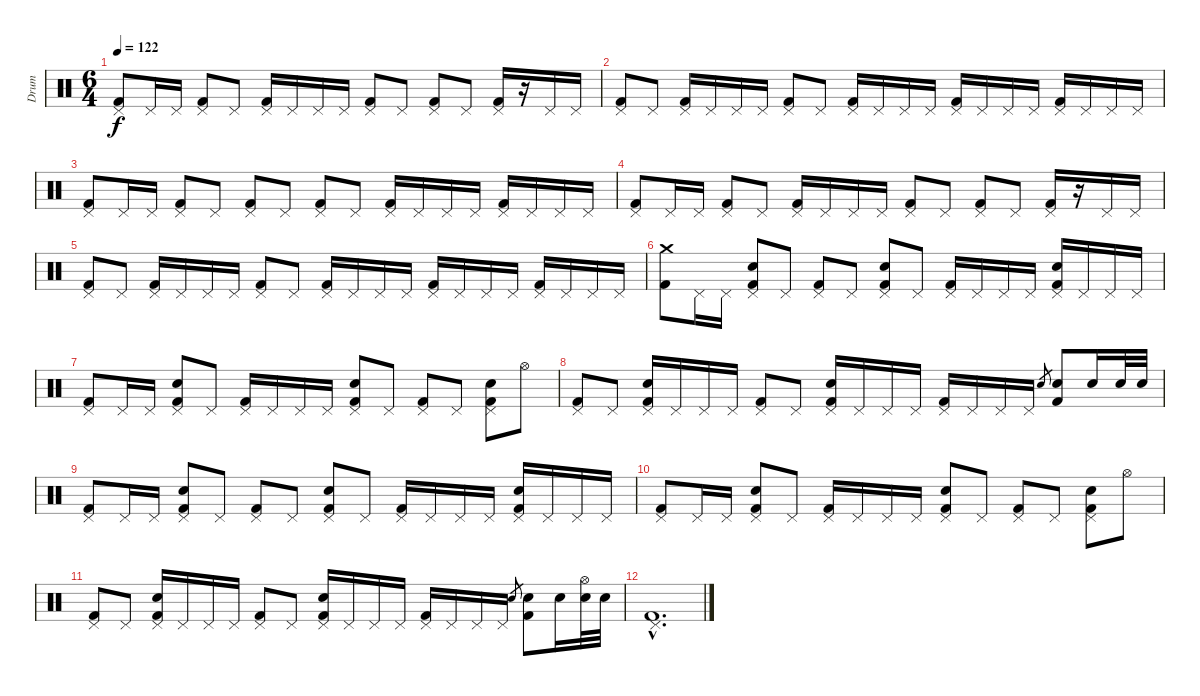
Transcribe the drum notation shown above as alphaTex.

\track ("Drum" "Drum") {instrument percussion}
\staff {score}
\articulation defaults
\ts (6 4)
\tempo 122
\clef neutral
\ks c
("Pedal Hi-Hat (hit)" "Kick (hit) 2").8{dy f} "Pedal Hi-Hat (hit)".16 "Pedal Hi-Hat (hit)".16 ("Pedal Hi-Hat (hit)" "Kick (hit) 2").8 "Pedal Hi-Hat (hit)".8 ("Pedal Hi-Hat (hit)" "Kick (hit) 2").16 "Pedal Hi-Hat (hit)".16 "Pedal Hi-Hat (hit)".16 "Pedal Hi-Hat (hit)".16 ("Pedal Hi-Hat (hit)" "Kick (hit) 2").8 "Pedal Hi-Hat (hit)".8 ("Pedal Hi-Hat (hit)" "Kick (hit) 2").8 "Pedal Hi-Hat (hit)".8 ("Pedal Hi-Hat (hit)" "Kick (hit) 2").16 r.16 "Pedal Hi-Hat (hit)".16 "Pedal Hi-Hat (hit)".16 |
("Pedal Hi-Hat (hit)" "Kick (hit) 2").8 "Pedal Hi-Hat (hit)".8 ("Pedal Hi-Hat (hit)" "Kick (hit) 2").16 "Pedal Hi-Hat (hit)".16 "Pedal Hi-Hat (hit)".16 "Pedal Hi-Hat (hit)".16 ("Pedal Hi-Hat (hit)" "Kick (hit) 2").8 "Pedal Hi-Hat (hit)".8 ("Pedal Hi-Hat (hit)" "Kick (hit) 2").16 "Pedal Hi-Hat (hit)".16 "Pedal Hi-Hat (hit)".16 "Pedal Hi-Hat (hit)".16 ("Pedal Hi-Hat (hit)" "Kick (hit) 2").16 "Pedal Hi-Hat (hit)".16 "Pedal Hi-Hat (hit)".16 "Pedal Hi-Hat (hit)".16 ("Pedal Hi-Hat (hit)" "Kick (hit) 2").16 "Pedal Hi-Hat (hit)".16 "Pedal Hi-Hat (hit)".16 "Pedal Hi-Hat (hit)".16 |
("Pedal Hi-Hat (hit)" "Kick (hit) 2").8 "Pedal Hi-Hat (hit)".16 "Pedal Hi-Hat (hit)".16 ("Pedal Hi-Hat (hit)" "Kick (hit) 2").8 "Pedal Hi-Hat (hit)".8 ("Pedal Hi-Hat (hit)" "Kick (hit) 2").8 "Pedal Hi-Hat (hit)".8 ("Pedal Hi-Hat (hit)" "Kick (hit) 2").8 "Pedal Hi-Hat (hit)".8 ("Pedal Hi-Hat (hit)" "Kick (hit) 2").16 "Pedal Hi-Hat (hit)".16 "Pedal Hi-Hat (hit)".16 "Pedal Hi-Hat (hit)".16 ("Pedal Hi-Hat (hit)" "Kick (hit) 2").16 "Pedal Hi-Hat (hit)".16 "Pedal Hi-Hat (hit)".16 "Pedal Hi-Hat (hit)".16 |
("Pedal Hi-Hat (hit)" "Kick (hit) 2").8 "Pedal Hi-Hat (hit)".16 "Pedal Hi-Hat (hit)".16 ("Pedal Hi-Hat (hit)" "Kick (hit) 2").8 "Pedal Hi-Hat (hit)".8 ("Pedal Hi-Hat (hit)" "Kick (hit) 2").16 "Pedal Hi-Hat (hit)".16 "Pedal Hi-Hat (hit)".16 "Pedal Hi-Hat (hit)".16 ("Pedal Hi-Hat (hit)" "Kick (hit) 2").8 "Pedal Hi-Hat (hit)".8 ("Pedal Hi-Hat (hit)" "Kick (hit) 2").8 "Pedal Hi-Hat (hit)".8 ("Pedal Hi-Hat (hit)" "Kick (hit) 2").16 r.16 "Pedal Hi-Hat (hit)".16 "Pedal Hi-Hat (hit)".16 |
("Pedal Hi-Hat (hit)" "Kick (hit) 2").8 "Pedal Hi-Hat (hit)".8 ("Pedal Hi-Hat (hit)" "Kick (hit) 2").16 "Pedal Hi-Hat (hit)".16 "Pedal Hi-Hat (hit)".16 "Pedal Hi-Hat (hit)".16 ("Pedal Hi-Hat (hit)" "Kick (hit) 2").8 "Pedal Hi-Hat (hit)".8 ("Pedal Hi-Hat (hit)" "Kick (hit) 2").16 "Pedal Hi-Hat (hit)".16 "Pedal Hi-Hat (hit)".16 "Pedal Hi-Hat (hit)".16 ("Pedal Hi-Hat (hit)" "Kick (hit) 2").16 "Pedal Hi-Hat (hit)".16 "Pedal Hi-Hat (hit)".16 "Pedal Hi-Hat (hit)".16 ("Pedal Hi-Hat (hit)" "Kick (hit) 2").16 "Pedal Hi-Hat (hit)".16 "Pedal Hi-Hat (hit)".16 "Pedal Hi-Hat (hit)".16 |
("Crash medium (hit)" "Kick (hit) 2").8 "Pedal Hi-Hat (hit)".16 "Pedal Hi-Hat (hit)".16 ("Pedal Hi-Hat (hit)" "Electric Snare (hit)" "Kick (hit) 2").8 "Pedal Hi-Hat (hit)".8 ("Pedal Hi-Hat (hit)" "Kick (hit) 2").8 "Pedal Hi-Hat (hit)".8 ("Pedal Hi-Hat (hit)" "Electric Snare (hit)" "Kick (hit) 2").8 "Pedal Hi-Hat (hit)".8 ("Pedal Hi-Hat (hit)" "Kick (hit) 2").16 "Pedal Hi-Hat (hit)".16 "Pedal Hi-Hat (hit)".16 "Pedal Hi-Hat (hit)".16 ("Pedal Hi-Hat (hit)" "Electric Snare (hit)" "Kick (hit) 2").16 "Pedal Hi-Hat (hit)".16 "Pedal Hi-Hat (hit)".16 "Pedal Hi-Hat (hit)".16 |
("Pedal Hi-Hat (hit)" "Kick (hit) 2").8 "Pedal Hi-Hat (hit)".16 "Pedal Hi-Hat (hit)".16 ("Pedal Hi-Hat (hit)" "Electric Snare (hit)" "Kick (hit) 2").8 "Pedal Hi-Hat (hit)".8 ("Pedal Hi-Hat (hit)" "Kick (hit) 2").16 "Pedal Hi-Hat (hit)".16 "Pedal Hi-Hat (hit)".16 "Pedal Hi-Hat (hit)".16 ("Pedal Hi-Hat (hit)" "Electric Snare (hit)" "Kick (hit) 2").8 "Pedal Hi-Hat (hit)".8 ("Pedal Hi-Hat (hit)" "Kick (hit) 2").8 "Pedal Hi-Hat (hit)".8 ("Pedal Hi-Hat (hit)" "Electric Snare (hit)" "Kick (hit) 2").8 "Hi-Hat (open)".8 |
("Pedal Hi-Hat (hit)" "Kick (hit) 2").8 "Pedal Hi-Hat (hit)".8 ("Pedal Hi-Hat (hit)" "Electric Snare (hit)" "Kick (hit) 2").16 "Pedal Hi-Hat (hit)".16 "Pedal Hi-Hat (hit)".16 "Pedal Hi-Hat (hit)".16 ("Pedal Hi-Hat (hit)" "Kick (hit) 2").8 "Pedal Hi-Hat (hit)".8 ("Pedal Hi-Hat (hit)" "Electric Snare (hit)" "Kick (hit) 2").16 "Pedal Hi-Hat (hit)".16 "Pedal Hi-Hat (hit)".16 "Pedal Hi-Hat (hit)".16 ("Pedal Hi-Hat (hit)" "Kick (hit) 2").16 "Pedal Hi-Hat (hit)".16 "Pedal Hi-Hat (hit)".16 "Pedal Hi-Hat (hit)".16 "Electric Snare (hit)".8{gr} ("Electric Snare (hit)" "Kick (hit) 2").8 "Electric Snare (hit)".16 "Electric Snare (hit)".32 "Electric Snare (hit)".32 |
("Pedal Hi-Hat (hit)" "Kick (hit) 2").8 "Pedal Hi-Hat (hit)".16 "Pedal Hi-Hat (hit)".16 ("Pedal Hi-Hat (hit)" "Electric Snare (hit)" "Kick (hit) 2").8 "Pedal Hi-Hat (hit)".8 ("Pedal Hi-Hat (hit)" "Kick (hit) 2").8 "Pedal Hi-Hat (hit)".8 ("Pedal Hi-Hat (hit)" "Electric Snare (hit)" "Kick (hit) 2").8 "Pedal Hi-Hat (hit)".8 ("Pedal Hi-Hat (hit)" "Kick (hit) 2").16 "Pedal Hi-Hat (hit)".16 "Pedal Hi-Hat (hit)".16 "Pedal Hi-Hat (hit)".16 ("Pedal Hi-Hat (hit)" "Electric Snare (hit)" "Kick (hit) 2").16 "Pedal Hi-Hat (hit)".16 "Pedal Hi-Hat (hit)".16 "Pedal Hi-Hat (hit)".16 |
("Pedal Hi-Hat (hit)" "Kick (hit) 2").8 "Pedal Hi-Hat (hit)".16 "Pedal Hi-Hat (hit)".16 ("Pedal Hi-Hat (hit)" "Electric Snare (hit)" "Kick (hit) 2").8 "Pedal Hi-Hat (hit)".8 ("Pedal Hi-Hat (hit)" "Kick (hit) 2").16 "Pedal Hi-Hat (hit)".16 "Pedal Hi-Hat (hit)".16 "Pedal Hi-Hat (hit)".16 ("Pedal Hi-Hat (hit)" "Electric Snare (hit)" "Kick (hit) 2").8 "Pedal Hi-Hat (hit)".8 ("Pedal Hi-Hat (hit)" "Kick (hit) 2").8 "Pedal Hi-Hat (hit)".8 ("Pedal Hi-Hat (hit)" "Electric Snare (hit)" "Kick (hit) 2").8 "Hi-Hat (open)".8 |
("Pedal Hi-Hat (hit)" "Kick (hit) 2").8 "Pedal Hi-Hat (hit)".8 ("Pedal Hi-Hat (hit)" "Electric Snare (hit)" "Kick (hit) 2").16 "Pedal Hi-Hat (hit)".16 "Pedal Hi-Hat (hit)".16 "Pedal Hi-Hat (hit)".16 ("Pedal Hi-Hat (hit)" "Kick (hit) 2").8 "Pedal Hi-Hat (hit)".8 ("Pedal Hi-Hat (hit)" "Electric Snare (hit)" "Kick (hit) 2").16 "Pedal Hi-Hat (hit)".16 "Pedal Hi-Hat (hit)".16 "Pedal Hi-Hat (hit)".16 ("Pedal Hi-Hat (hit)" "Kick (hit) 2").16 "Pedal Hi-Hat (hit)".16 "Pedal Hi-Hat (hit)".16 "Pedal Hi-Hat (hit)".16 "Electric Snare (hit)".8{gr} ("Electric Snare (hit)" "Kick (hit) 2").8 "Electric Snare (hit)".16 ("Hi-Hat (open)" "Electric Snare (hit)").32 "Electric Snare (hit)".32 |
("Pedal Hi-Hat (hit)"{hac} "Kick (hit) 2"{hac}).1{d}
